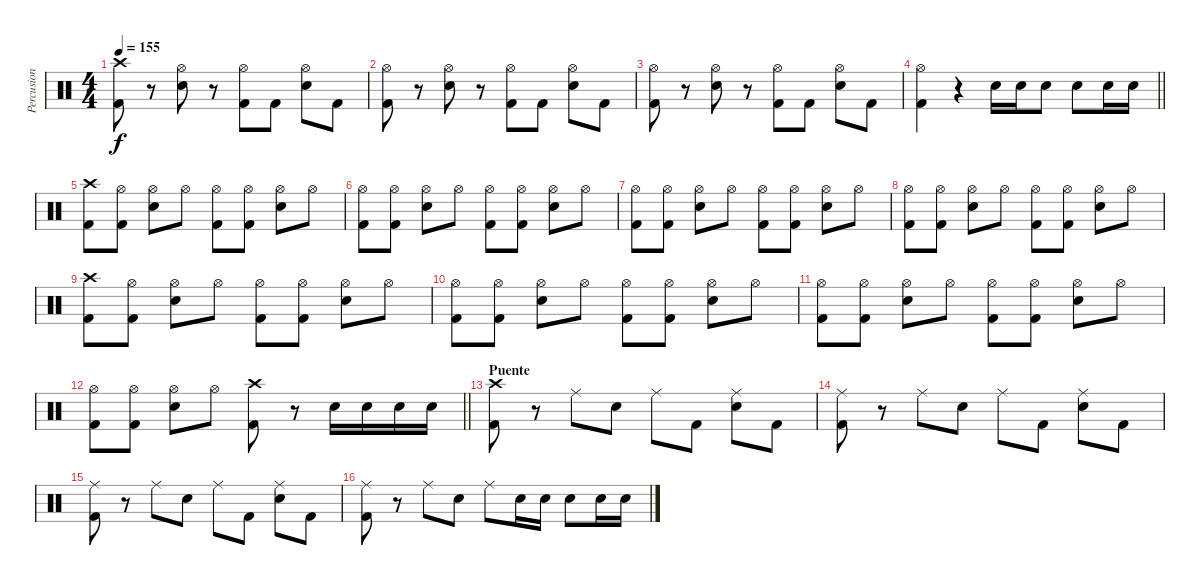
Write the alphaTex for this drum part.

\track ("Percusion" "Percusion") {instrument percussion}
\staff {score}
\articulation defaults
\ts (4 4)
\tempo 155
\clef neutral
\ks c
("Crash high (hit)" "Kick (hit) 2").8{dy f} r.8 ("Hi-Hat (open)" "Electric Snare (hit)").8 r.8 ("Hi-Hat (open)" "Kick (hit) 2").8 "Kick (hit) 2".8 ("Hi-Hat (open)" "Electric Snare (hit)").8 "Kick (hit) 2".8 |
("Hi-Hat (open)" "Kick (hit) 2").8 r.8 ("Hi-Hat (open)" "Electric Snare (hit)").8 r.8 ("Hi-Hat (open)" "Kick (hit) 2").8 "Kick (hit) 2".8 ("Hi-Hat (open)" "Electric Snare (hit)").8 "Kick (hit) 2".8 |
("Hi-Hat (open)" "Kick (hit) 2").8 r.8 ("Hi-Hat (open)" "Electric Snare (hit)").8 r.8 ("Hi-Hat (open)" "Kick (hit) 2").8 "Kick (hit) 2".8 ("Hi-Hat (open)" "Electric Snare (hit)").8 "Kick (hit) 2".8 |
\barLineRight lightlight
("Hi-Hat (open)" "Kick (hit) 2").4 r.4 "Electric Snare (hit)".16 "Electric Snare (hit)".16 "Electric Snare (hit)".8 "Electric Snare (hit)".8 "Electric Snare (hit)".16 "Electric Snare (hit)".16 |
\section ("" "")
("Crash high (hit)" "Kick (hit) 2").8 ("Hi-Hat (open)" "Kick (hit) 2").8 ("Hi-Hat (open)" "Electric Snare (hit)").8 "Hi-Hat (open)".8 ("Hi-Hat (open)" "Kick (hit) 2").8 ("Hi-Hat (open)" "Kick (hit) 2").8 ("Hi-Hat (open)" "Electric Snare (hit)").8 "Hi-Hat (open)".8 |
("Hi-Hat (open)" "Kick (hit) 2").8 ("Hi-Hat (open)" "Kick (hit) 2").8 ("Hi-Hat (open)" "Electric Snare (hit)").8 "Hi-Hat (open)".8 ("Hi-Hat (open)" "Kick (hit) 2").8 ("Hi-Hat (open)" "Kick (hit) 2").8 ("Hi-Hat (open)" "Electric Snare (hit)").8 "Hi-Hat (open)".8 |
("Hi-Hat (open)" "Kick (hit) 2").8 ("Hi-Hat (open)" "Kick (hit) 2").8 ("Hi-Hat (open)" "Electric Snare (hit)").8 "Hi-Hat (open)".8 ("Hi-Hat (open)" "Kick (hit) 2").8 ("Hi-Hat (open)" "Kick (hit) 2").8 ("Hi-Hat (open)" "Electric Snare (hit)").8 "Hi-Hat (open)".8 |
("Hi-Hat (open)" "Kick (hit) 2").8 ("Hi-Hat (open)" "Kick (hit) 2").8 ("Hi-Hat (open)" "Electric Snare (hit)").8 "Hi-Hat (open)".8 ("Hi-Hat (open)" "Kick (hit) 2").8 ("Hi-Hat (open)" "Kick (hit) 2").8 ("Hi-Hat (open)" "Electric Snare (hit)").8 "Hi-Hat (open)".8 |
("Crash high (hit)" "Kick (hit) 2").8 ("Hi-Hat (open)" "Kick (hit) 2").8 ("Hi-Hat (open)" "Electric Snare (hit)").8 "Hi-Hat (open)".8 ("Hi-Hat (open)" "Kick (hit) 2").8 ("Hi-Hat (open)" "Kick (hit) 2").8 ("Hi-Hat (open)" "Electric Snare (hit)").8 "Hi-Hat (open)".8 |
("Hi-Hat (open)" "Kick (hit) 2").8 ("Hi-Hat (open)" "Kick (hit) 2").8 ("Hi-Hat (open)" "Electric Snare (hit)").8 "Hi-Hat (open)".8 ("Hi-Hat (open)" "Kick (hit) 2").8 ("Hi-Hat (open)" "Kick (hit) 2").8 ("Hi-Hat (open)" "Electric Snare (hit)").8 "Hi-Hat (open)".8 |
("Hi-Hat (open)" "Kick (hit) 2").8 ("Hi-Hat (open)" "Kick (hit) 2").8 ("Hi-Hat (open)" "Electric Snare (hit)").8 "Hi-Hat (open)".8 ("Hi-Hat (open)" "Kick (hit) 2").8 ("Hi-Hat (open)" "Kick (hit) 2").8 ("Hi-Hat (open)" "Electric Snare (hit)").8 "Hi-Hat (open)".8 |
\barLineRight lightlight
("Hi-Hat (open)" "Kick (hit) 2").8 ("Hi-Hat (open)" "Kick (hit) 2").8 ("Hi-Hat (open)" "Electric Snare (hit)").8 "Hi-Hat (open)".8 ("Crash high (hit)" "Kick (hit) 2").8 r.8 "Electric Snare (hit)".16 "Electric Snare (hit)".16 "Electric Snare (hit)".16 "Electric Snare (hit)".16 |
\section ("" "Puente")
("Crash high (hit)" "Kick (hit) 2").8 r.8 "Ride (middle)".8 "Electric Snare (hit)".8 "Ride (middle)".8 "Kick (hit) 2".8 ("Ride (middle)" "Electric Snare (hit)").8 "Kick (hit) 2".8 |
("Ride (middle)" "Kick (hit) 2").8 r.8 "Ride (middle)".8 "Electric Snare (hit)".8 "Ride (middle)".8 "Kick (hit) 2".8 ("Ride (middle)" "Electric Snare (hit)").8 "Kick (hit) 2".8 |
("Ride (middle)" "Kick (hit) 2").8 r.8 "Ride (middle)".8 "Electric Snare (hit)".8 "Ride (middle)".8 "Kick (hit) 2".8 ("Ride (middle)" "Electric Snare (hit)").8 "Kick (hit) 2".8 |
("Ride (middle)" "Kick (hit) 2").8 r.8 "Ride (middle)".8 "Electric Snare (hit)".8 "Ride (middle)".8 "Electric Snare (hit)".16 "Electric Snare (hit)".16 "Electric Snare (hit)".8 "Electric Snare (hit)".16 "Electric Snare (hit)".16
